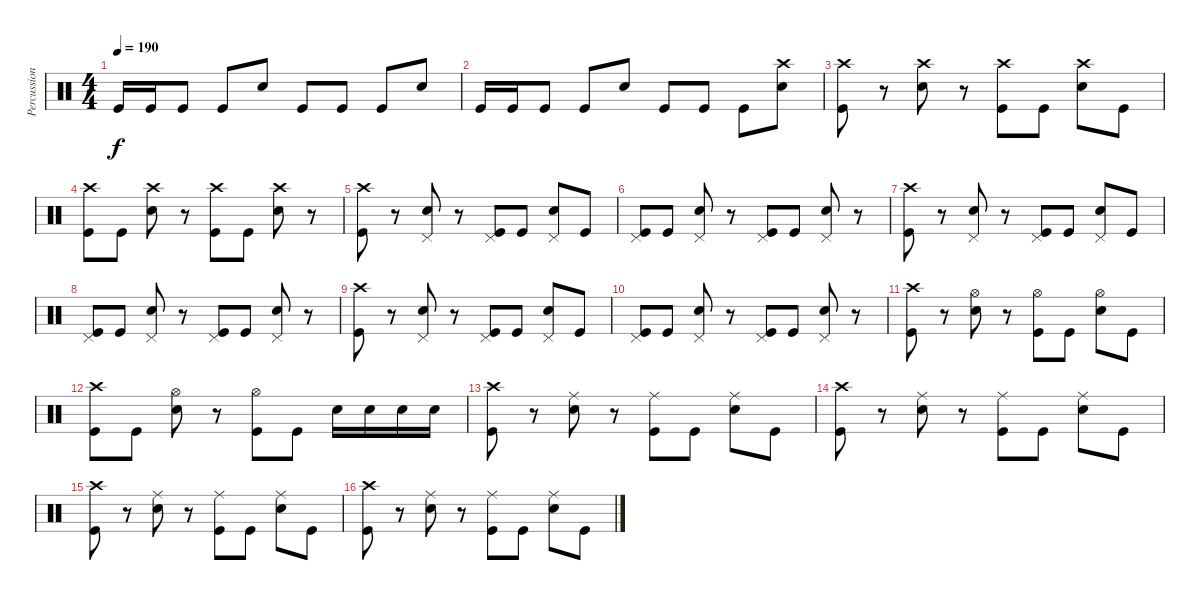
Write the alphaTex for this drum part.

\track ("Percussion" "Percussion") {instrument percussion}
\staff {score}
\articulation defaults
\ts (4 4)
\tempo 190
\clef neutral
\ks c "Kick (hit)".16{dy f} "Kick (hit)".16 "Kick (hit)".8 "Kick (hit)".8 "Electric Snare (hit)".8 "Kick (hit)".8 "Kick (hit)".8 "Kick (hit)".8 "Electric Snare (hit)".8
|
"Kick (hit)".16 "Kick (hit)".16 "Kick (hit)".8 "Kick (hit)".8 "Electric Snare (hit)".8 "Kick (hit)".8 "Kick (hit)".8 "Kick (hit)".8 ("Electric Snare (hit)" "Crash high (hit)").8 |
("Crash high (hit)" "Kick (hit)").8 r.8 ("Crash high (hit)" "Electric Snare (hit)").8 r.8 ("Crash high (hit)" "Kick (hit)").8 "Kick (hit)".8 ("Crash high (hit)" "Electric Snare (hit)").8 "Kick (hit)".8 |
("Crash high (hit)" "Kick (hit)").8 "Kick (hit)".8 ("Crash high (hit)" "Electric Snare (hit)").8 r.8 ("Crash high (hit)" "Kick (hit)").8 "Kick (hit)".8 ("Crash high (hit)" "Electric Snare (hit)").8 r.8 |
("Crash high (hit)" "Kick (hit)").8 r.8 ("Pedal Hi-Hat (hit)" "Electric Snare (hit)").8 r.8 ("Pedal Hi-Hat (hit)" "Kick (hit)").8 "Kick (hit)".8 ("Pedal Hi-Hat (hit)" "Electric Snare (hit)").8 "Kick (hit)".8 |
("Pedal Hi-Hat (hit)" "Kick (hit)").8 "Kick (hit)".8 ("Pedal Hi-Hat (hit)" "Electric Snare (hit)").8 r.8 ("Pedal Hi-Hat (hit)" "Kick (hit)").8 "Kick (hit)".8 ("Pedal Hi-Hat (hit)" "Electric Snare (hit)").8 r.8 |
("Crash high (hit)" "Kick (hit)").8 r.8 ("Pedal Hi-Hat (hit)" "Electric Snare (hit)").8 r.8 ("Pedal Hi-Hat (hit)" "Kick (hit)").8 "Kick (hit)".8 ("Pedal Hi-Hat (hit)" "Electric Snare (hit)").8 "Kick (hit)".8 |
("Pedal Hi-Hat (hit)" "Kick (hit)").8 "Kick (hit)".8 ("Pedal Hi-Hat (hit)" "Electric Snare (hit)").8 r.8 ("Pedal Hi-Hat (hit)" "Kick (hit)").8 "Kick (hit)".8 ("Pedal Hi-Hat (hit)" "Electric Snare (hit)").8 r.8 |
("Crash high (hit)" "Kick (hit)").8 r.8 ("Pedal Hi-Hat (hit)" "Electric Snare (hit)").8 r.8 ("Pedal Hi-Hat (hit)" "Kick (hit)").8 "Kick (hit)".8 ("Pedal Hi-Hat (hit)" "Electric Snare (hit)").8 "Kick (hit)".8 |
("Pedal Hi-Hat (hit)" "Kick (hit)").8 "Kick (hit)".8 ("Pedal Hi-Hat (hit)" "Electric Snare (hit)").8 r.8 ("Pedal Hi-Hat (hit)" "Kick (hit)").8 "Kick (hit)".8 ("Pedal Hi-Hat (hit)" "Electric Snare (hit)").8 r.8 |
("Crash high (hit)" "Kick (hit)").8 r.8 ("Hi-Hat (open)" "Electric Snare (hit)").8 r.8 ("Hi-Hat (open)" "Kick (hit)").8 "Kick (hit)".8 ("Hi-Hat (open)" "Electric Snare (hit)").8 "Kick (hit)".8 |
("Crash high (hit)" "Kick (hit)").8 "Kick (hit)".8 ("Hi-Hat (open)" "Electric Snare (hit)").8 r.8 ("Hi-Hat (open)" "Kick (hit)").8 "Kick (hit)".8 "Electric Snare (hit)".16 "Electric Snare (hit)".16 "Electric Snare (hit)".16 "Electric Snare (hit)".16 |
("Crash high (hit)" "Kick (hit)").8 r.8 ("Ride (middle)" "Electric Snare (hit)").8 r.8 ("Ride (middle)" "Kick (hit)").8 "Kick (hit)".8 ("Ride (middle)" "Electric Snare (hit)").8 "Kick (hit)".8 |
("Crash high (hit)" "Kick (hit)").8 r.8 ("Ride (middle)" "Electric Snare (hit)").8 r.8 ("Ride (middle)" "Kick (hit)").8 "Kick (hit)".8 ("Ride (middle)" "Electric Snare (hit)").8 "Kick (hit)".8 |
("Crash high (hit)" "Kick (hit)").8 r.8 ("Ride (middle)" "Electric Snare (hit)").8 r.8 ("Ride (middle)" "Kick (hit)").8 "Kick (hit)".8 ("Ride (middle)" "Electric Snare (hit)").8 "Kick (hit)".8 |
("Crash high (hit)" "Kick (hit)").8 r.8 ("Ride (middle)" "Electric Snare (hit)").8 r.8 ("Ride (middle)" "Kick (hit)").8 "Kick (hit)".8 ("Ride (middle)" "Electric Snare (hit)").8 "Kick (hit)".8
